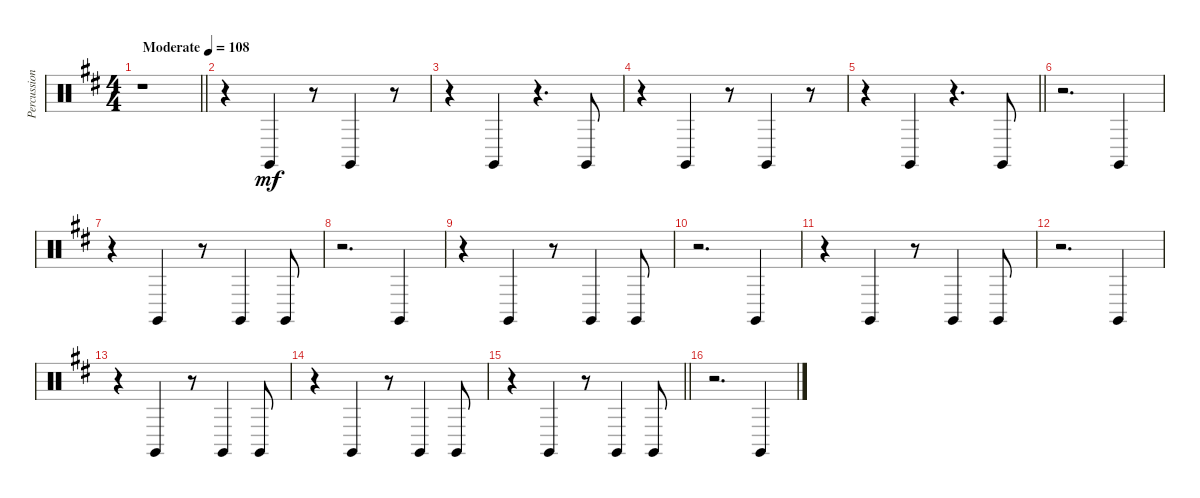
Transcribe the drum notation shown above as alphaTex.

\track ("Percussion" "Percussion") {instrument percussion}
\staff {score}
\articulation defaults
\ts (4 4)
\tempo (108 "Moderate")
\clef neutral
\barLineRight lightlight
\ks bminor
r.1{dy mf} |
r.4 "Claves (hit)".4 r.8 "Claves (hit)".4 r.8 |
r.4 "Claves (hit)".4 r.4{d} "Claves (hit)".8 |
r.4 "Claves (hit)".4 r.8 "Claves (hit)".4 r.8 |
\barLineRight lightlight
r.4 "Claves (hit)".4 r.4{d} "Claves (hit)".8 |
r.2{d} "Claves (hit)".4 |
r.4 "Claves (hit)".4 r.8 "Claves (hit)".4 "Claves (hit)".8 |
r.2{d} "Claves (hit)".4 |
r.4 "Claves (hit)".4 r.8 "Claves (hit)".4 "Claves (hit)".8 |
r.2{d} "Claves (hit)".4 |
r.4 "Claves (hit)".4 r.8 "Claves (hit)".4 "Claves (hit)".8 |
r.2{d} "Claves (hit)".4 |
r.4 "Claves (hit)".4 r.8 "Claves (hit)".4 "Claves (hit)".8 |
r.4 "Claves (hit)".4 r.8 "Claves (hit)".4 "Claves (hit)".8 |
\barLineRight lightlight
r.4 "Claves (hit)".4 r.8 "Claves (hit)".4 "Claves (hit)".8 |
r.2{d} "Claves (hit)".4
